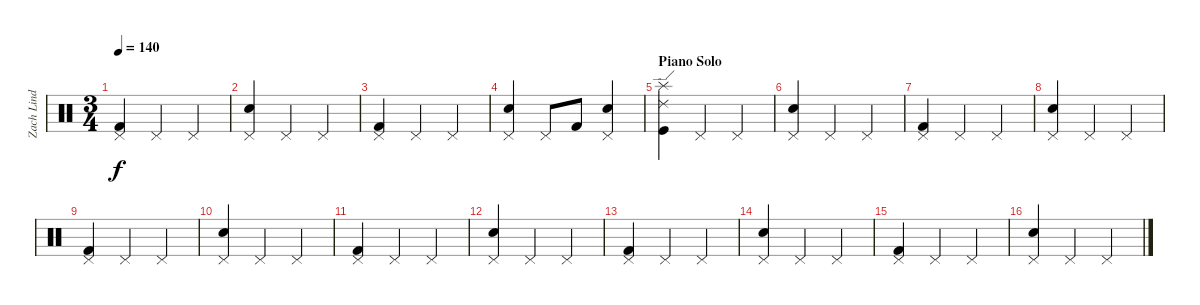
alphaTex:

\track ("Zach Lind - Drums" "Zach Lind ") {instrument percussion}
\staff {score}
\articulation defaults
\ts (3 4)
\tempo 140
\clef neutral
\ks c
("Pedal Hi-Hat (hit)" "Kick (hit) 2").4{dy f} "Pedal Hi-Hat (hit)".4 "Pedal Hi-Hat (hit)".4 |
("Pedal Hi-Hat (hit)" "Electric Snare (hit)").4 "Pedal Hi-Hat (hit)".4 "Pedal Hi-Hat (hit)".4 |
("Pedal Hi-Hat (hit)" "Kick (hit) 2").4 "Pedal Hi-Hat (hit)".4 "Pedal Hi-Hat (hit)".4 |
("Pedal Hi-Hat (hit)" "Electric Snare (hit)").4 "Pedal Hi-Hat (hit)".8 "Kick (hit) 2".8 ("Pedal Hi-Hat (hit)" "Electric Snare (hit)").4 |
\section ("" "Piano Solo")
("Splash (hit)" "Ride (edge) 2" "Kick (hit)").4 "Pedal Hi-Hat (hit)".4 "Pedal Hi-Hat (hit)".4 |
("Pedal Hi-Hat (hit)" "Electric Snare (hit)").4 "Pedal Hi-Hat (hit)".4 "Pedal Hi-Hat (hit)".4 |
("Pedal Hi-Hat (hit)" "Kick (hit) 2").4 "Pedal Hi-Hat (hit)".4 "Pedal Hi-Hat (hit)".4 |
("Pedal Hi-Hat (hit)" "Electric Snare (hit)").4 "Pedal Hi-Hat (hit)".4 "Pedal Hi-Hat (hit)".4 |
("Pedal Hi-Hat (hit)" "Kick (hit) 2").4 "Pedal Hi-Hat (hit)".4 "Pedal Hi-Hat (hit)".4 |
("Pedal Hi-Hat (hit)" "Electric Snare (hit)").4 "Pedal Hi-Hat (hit)".4 "Pedal Hi-Hat (hit)".4 |
("Pedal Hi-Hat (hit)" "Kick (hit) 2").4 "Pedal Hi-Hat (hit)".4 "Pedal Hi-Hat (hit)".4 |
("Pedal Hi-Hat (hit)" "Electric Snare (hit)").4 "Pedal Hi-Hat (hit)".4 "Pedal Hi-Hat (hit)".4 |
("Pedal Hi-Hat (hit)" "Kick (hit) 2").4 "Pedal Hi-Hat (hit)".4 "Pedal Hi-Hat (hit)".4 |
("Pedal Hi-Hat (hit)" "Electric Snare (hit)").4 "Pedal Hi-Hat (hit)".4 "Pedal Hi-Hat (hit)".4 |
("Pedal Hi-Hat (hit)" "Kick (hit) 2").4 "Pedal Hi-Hat (hit)".4 "Pedal Hi-Hat (hit)".4 |
("Pedal Hi-Hat (hit)" "Electric Snare (hit)").4 "Pedal Hi-Hat (hit)".4 "Pedal Hi-Hat (hit)".4
